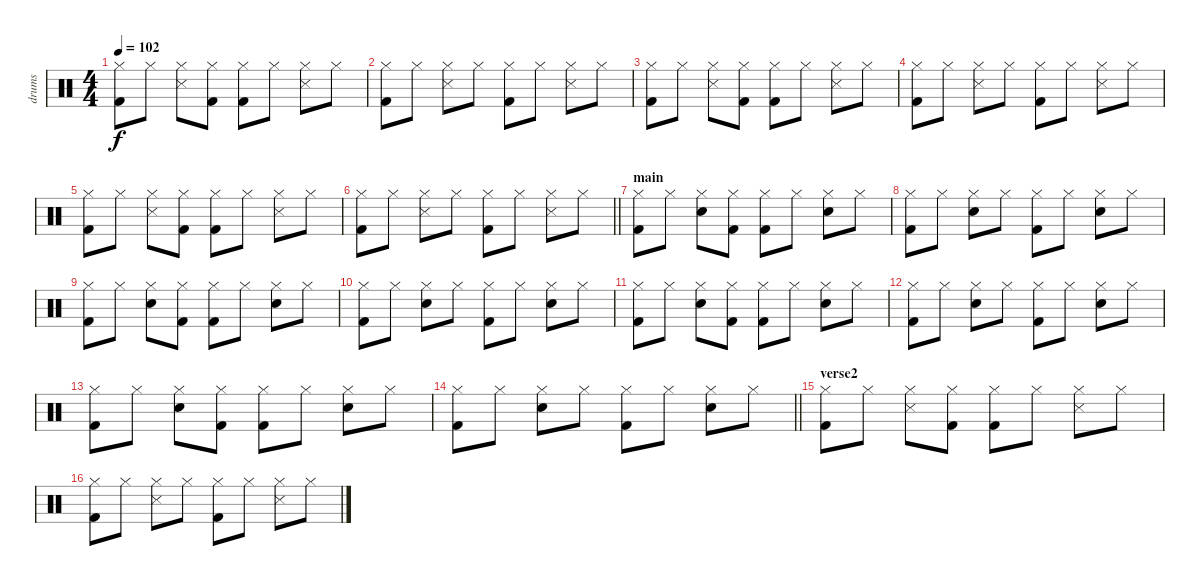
\track ("drums" "drums") {instrument percussion}
\staff {score}
\articulation defaults
\ts (4 4)
\tempo 102
\clef neutral
\ks c
("Hi-Hat (closed)" "Kick (hit) 2").8{dy f} "Hi-Hat (closed)".8 ("Hi-Hat (closed)" "Snare (side stick) 3").8 ("Hi-Hat (closed)" "Kick (hit) 2").8 ("Hi-Hat (closed)" "Kick (hit) 2").8 "Hi-Hat (closed)".8 ("Hi-Hat (closed)" "Snare (side stick) 3").8 "Hi-Hat (closed)".8 |
("Hi-Hat (closed)" "Kick (hit) 2").8 "Hi-Hat (closed)".8 ("Hi-Hat (closed)" "Snare (side stick) 3").8 "Hi-Hat (closed)".8 ("Hi-Hat (closed)" "Kick (hit) 2").8 "Hi-Hat (closed)".8 ("Hi-Hat (closed)" "Snare (side stick) 3").8 "Hi-Hat (closed)".8 |
("Hi-Hat (closed)" "Kick (hit) 2").8 "Hi-Hat (closed)".8 ("Hi-Hat (closed)" "Snare (side stick) 3").8 ("Hi-Hat (closed)" "Kick (hit) 2").8 ("Hi-Hat (closed)" "Kick (hit) 2").8 "Hi-Hat (closed)".8 ("Hi-Hat (closed)" "Snare (side stick) 3").8 "Hi-Hat (closed)".8 |
("Hi-Hat (closed)" "Kick (hit) 2").8 "Hi-Hat (closed)".8 ("Hi-Hat (closed)" "Snare (side stick) 3").8 "Hi-Hat (closed)".8 ("Hi-Hat (closed)" "Kick (hit) 2").8 "Hi-Hat (closed)".8 ("Hi-Hat (closed)" "Snare (side stick) 3").8 "Hi-Hat (closed)".8 |
("Hi-Hat (closed)" "Kick (hit) 2").8 "Hi-Hat (closed)".8 ("Hi-Hat (closed)" "Snare (side stick) 3").8 ("Hi-Hat (closed)" "Kick (hit) 2").8 ("Hi-Hat (closed)" "Kick (hit) 2").8 "Hi-Hat (closed)".8 ("Hi-Hat (closed)" "Snare (side stick) 3").8 "Hi-Hat (closed)".8 |
\barLineRight lightlight
("Hi-Hat (closed)" "Kick (hit) 2").8 "Hi-Hat (closed)".8 ("Hi-Hat (closed)" "Snare (side stick) 3").8 "Hi-Hat (closed)".8 ("Hi-Hat (closed)" "Kick (hit) 2").8 "Hi-Hat (closed)".8 ("Hi-Hat (closed)" "Snare (side stick) 3").8 "Hi-Hat (closed)".8 |
\section ("" "main")
("Hi-Hat (closed)" "Kick (hit) 2").8 "Hi-Hat (closed)".8 ("Hi-Hat (closed)" "Electric Snare (hit)").8 ("Hi-Hat (closed)" "Kick (hit) 2").8 ("Hi-Hat (closed)" "Kick (hit) 2").8 "Hi-Hat (closed)".8 ("Hi-Hat (closed)" "Electric Snare (hit)").8 "Hi-Hat (closed)".8 |
("Hi-Hat (closed)" "Kick (hit) 2").8 "Hi-Hat (closed)".8 ("Hi-Hat (closed)" "Electric Snare (hit)").8 "Hi-Hat (closed)".8 ("Hi-Hat (closed)" "Kick (hit) 2").8 "Hi-Hat (closed)".8 ("Hi-Hat (closed)" "Electric Snare (hit)").8 "Hi-Hat (closed)".8 |
("Hi-Hat (closed)" "Kick (hit) 2").8 "Hi-Hat (closed)".8 ("Hi-Hat (closed)" "Electric Snare (hit)").8 ("Hi-Hat (closed)" "Kick (hit) 2").8 ("Hi-Hat (closed)" "Kick (hit) 2").8 "Hi-Hat (closed)".8 ("Hi-Hat (closed)" "Electric Snare (hit)").8 "Hi-Hat (closed)".8 |
("Hi-Hat (closed)" "Kick (hit) 2").8 "Hi-Hat (closed)".8 ("Hi-Hat (closed)" "Electric Snare (hit)").8 "Hi-Hat (closed)".8 ("Hi-Hat (closed)" "Kick (hit) 2").8 "Hi-Hat (closed)".8 ("Hi-Hat (closed)" "Electric Snare (hit)").8 "Hi-Hat (closed)".8 |
("Hi-Hat (closed)" "Kick (hit) 2").8 "Hi-Hat (closed)".8 ("Hi-Hat (closed)" "Electric Snare (hit)").8 ("Hi-Hat (closed)" "Kick (hit) 2").8 ("Hi-Hat (closed)" "Kick (hit) 2").8 "Hi-Hat (closed)".8 ("Hi-Hat (closed)" "Electric Snare (hit)").8 "Hi-Hat (closed)".8 |
("Hi-Hat (closed)" "Kick (hit) 2").8 "Hi-Hat (closed)".8 ("Hi-Hat (closed)" "Electric Snare (hit)").8 "Hi-Hat (closed)".8 ("Hi-Hat (closed)" "Kick (hit) 2").8 "Hi-Hat (closed)".8 ("Hi-Hat (closed)" "Electric Snare (hit)").8 "Hi-Hat (closed)".8 |
("Hi-Hat (closed)" "Kick (hit) 2").8 "Hi-Hat (closed)".8 ("Hi-Hat (closed)" "Electric Snare (hit)").8 ("Hi-Hat (closed)" "Kick (hit) 2").8 ("Hi-Hat (closed)" "Kick (hit) 2").8 "Hi-Hat (closed)".8 ("Hi-Hat (closed)" "Electric Snare (hit)").8 "Hi-Hat (closed)".8 |
\barLineRight lightlight
("Hi-Hat (closed)" "Kick (hit) 2").8 "Hi-Hat (closed)".8 ("Hi-Hat (closed)" "Electric Snare (hit)").8 "Hi-Hat (closed)".8 ("Hi-Hat (closed)" "Kick (hit) 2").8 "Hi-Hat (closed)".8 ("Hi-Hat (closed)" "Electric Snare (hit)").8 "Hi-Hat (closed)".8 |
\section ("" "verse2")
("Hi-Hat (closed)" "Kick (hit) 2").8 "Hi-Hat (closed)".8 ("Hi-Hat (closed)" "Snare (side stick) 3").8 ("Hi-Hat (closed)" "Kick (hit) 2").8 ("Hi-Hat (closed)" "Kick (hit) 2").8 "Hi-Hat (closed)".8 ("Hi-Hat (closed)" "Snare (side stick) 3").8 "Hi-Hat (closed)".8 |
("Hi-Hat (closed)" "Kick (hit) 2").8 "Hi-Hat (closed)".8 ("Hi-Hat (closed)" "Snare (side stick) 3").8 "Hi-Hat (closed)".8 ("Hi-Hat (closed)" "Kick (hit) 2").8 "Hi-Hat (closed)".8 ("Hi-Hat (closed)" "Snare (side stick) 3").8 "Hi-Hat (closed)".8
